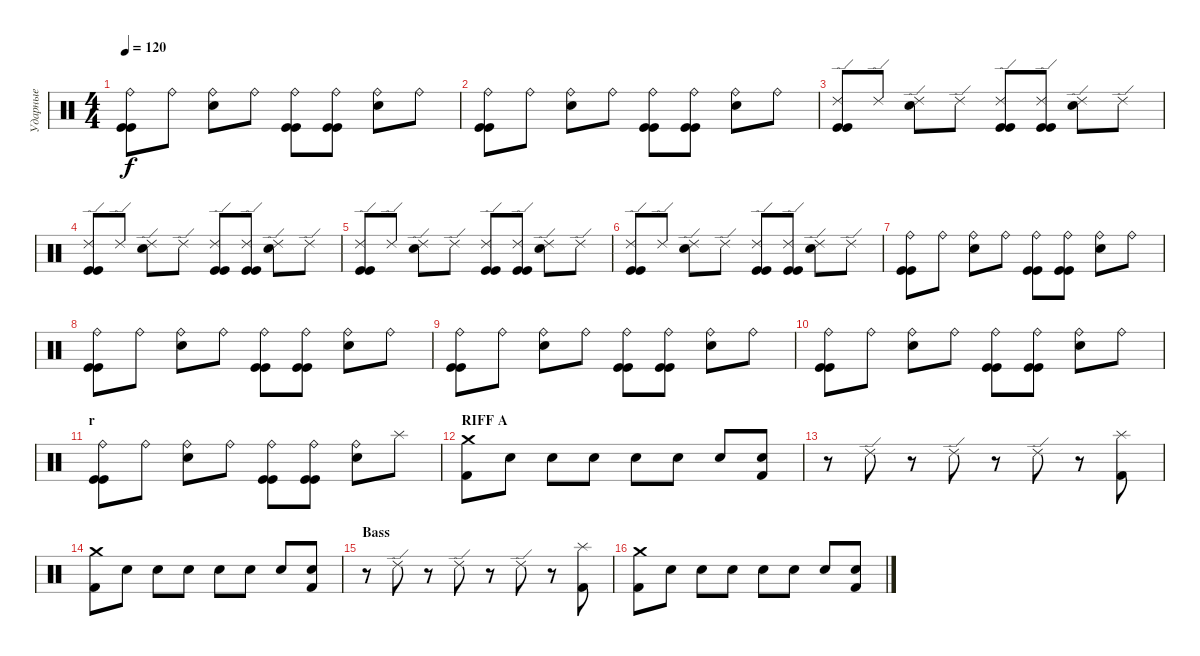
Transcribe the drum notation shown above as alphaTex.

\track ("Ударные" "Ударные") {instrument percussion}
\staff {score}
\articulation defaults
\ts (4 4)
\tempo 120
\clef neutral
\ks c
("Ride (bell)" "Kick (hit)" "Kick (hit)").8{dy f} "Ride (bell)".8 ("Ride (bell)" "Snare (hit) 2").8 "Ride (bell)".8 ("Ride (bell)" "Kick (hit)" "Kick (hit)").8 ("Ride (bell)" "Kick (hit)" "Kick (hit)").8 ("Ride (bell)" "Snare (hit) 2").8 "Ride (bell)".8 |
("Ride (bell)" "Kick (hit)" "Kick (hit)").8 "Ride (bell)".8 ("Ride (bell)" "Snare (hit) 2").8 "Ride (bell)".8 ("Ride (bell)" "Kick (hit)" "Kick (hit)").8 ("Ride (bell)" "Kick (hit)" "Kick (hit)").8 ("Ride (bell)" "Snare (hit) 2").8 "Ride (bell)".8 |
("Ride (edge) 2" "Kick (hit)" "Kick (hit)").8 "Ride (edge) 2".8 ("Ride (edge) 2" "Snare (hit) 2").8 "Ride (edge) 2".8 ("Ride (edge) 2" "Kick (hit)" "Kick (hit)").8 ("Ride (edge) 2" "Kick (hit)" "Kick (hit)").8 ("Ride (edge) 2" "Snare (hit) 2").8 "Ride (edge) 2".8 |
("Ride (edge) 2" "Kick (hit)" "Kick (hit)").8 "Ride (edge) 2".8 ("Ride (edge) 2" "Snare (hit) 2").8 "Ride (edge) 2".8 ("Ride (edge) 2" "Kick (hit)" "Kick (hit)").8 ("Ride (edge) 2" "Kick (hit)" "Kick (hit)").8 ("Ride (edge) 2" "Snare (hit) 2").8 "Ride (edge) 2".8 |
("Ride (edge) 2" "Kick (hit)" "Kick (hit)").8 "Ride (edge) 2".8 ("Ride (edge) 2" "Snare (hit) 2").8 "Ride (edge) 2".8 ("Ride (edge) 2" "Kick (hit)" "Kick (hit)").8 ("Ride (edge) 2" "Kick (hit)" "Kick (hit)").8 ("Ride (edge) 2" "Snare (hit) 2").8 "Ride (edge) 2".8 |
("Ride (edge) 2" "Kick (hit)" "Kick (hit)").8 "Ride (edge) 2".8 ("Ride (edge) 2" "Snare (hit) 2").8 "Ride (edge) 2".8 ("Ride (edge) 2" "Kick (hit)" "Kick (hit)").8 ("Ride (edge) 2" "Kick (hit)" "Kick (hit)").8 ("Ride (edge) 2" "Snare (hit) 2").8 "Ride (edge) 2".8 |
("Ride (bell)" "Kick (hit)" "Kick (hit)").8 "Ride (bell)".8 ("Ride (bell)" "Snare (hit) 2").8 "Ride (bell)".8 ("Ride (bell)" "Kick (hit)" "Kick (hit)").8 ("Ride (bell)" "Kick (hit)" "Kick (hit)").8 ("Ride (bell)" "Snare (hit) 2").8 "Ride (bell)".8 |
("Ride (bell)" "Kick (hit)" "Kick (hit)").8 "Ride (bell)".8 ("Ride (bell)" "Snare (hit) 2").8 "Ride (bell)".8 ("Ride (bell)" "Kick (hit)" "Kick (hit)").8 ("Ride (bell)" "Kick (hit)" "Kick (hit)").8 ("Ride (bell)" "Snare (hit) 2").8 "Ride (bell)".8 |
("Ride (bell)" "Kick (hit)" "Kick (hit)").8 "Ride (bell)".8 ("Ride (bell)" "Snare (hit) 2").8 "Ride (bell)".8 ("Ride (bell)" "Kick (hit)" "Kick (hit)").8 ("Ride (bell)" "Kick (hit)" "Kick (hit)").8 ("Ride (bell)" "Snare (hit) 2").8 "Ride (bell)".8 |
("Ride (bell)" "Kick (hit)" "Kick (hit)").8 "Ride (bell)".8 ("Ride (bell)" "Snare (hit) 2").8 "Ride (bell)".8 ("Ride (bell)" "Kick (hit)" "Kick (hit)").8 ("Ride (bell)" "Kick (hit)" "Kick (hit)").8 ("Ride (bell)" "Snare (hit) 2").8 "Ride (bell)".8 |
\section ("" "r")
("Ride (bell)" "Kick (hit)" "Kick (hit)").8 "Ride (bell)".8 ("Ride (bell)" "Snare (hit) 2").8 "Ride (bell)".8 ("Ride (bell)" "Kick (hit)" "Kick (hit)").8 ("Ride (bell)" "Kick (hit)" "Kick (hit)").8 ("Ride (bell)" "Snare (hit) 2").8 "Splash (hit)".8 |
\section ("" "RIFF A")
("Crash medium (hit)" "Kick (hit) 2").8 "Metronome (bell)".8 "Metronome (bell)".8 "Metronome (bell)".8 "Metronome (bell)".8 "Metronome (bell)".8 "Metronome (bell)".8 ("Metronome (bell)" "Kick (hit) 2").8 |
r.8 "Ride (edge) 2".8 r.8 "Ride (edge) 2".8 r.8 "Ride (edge) 2".8 r.8 ("Splash (hit)" "Kick (hit) 2").8 |
("Crash medium (hit)" "Kick (hit) 2").8 "Metronome (bell)".8 "Metronome (bell)".8 "Metronome (bell)".8 "Metronome (bell)".8 "Metronome (bell)".8 "Metronome (bell)".8 ("Metronome (bell)" "Kick (hit) 2").8 |
\section ("" "Bass")
r.8 "Ride (edge) 2".8 r.8 "Ride (edge) 2".8 r.8 "Ride (edge) 2".8 r.8 ("Splash (hit)" "Kick (hit) 2").8 |
("Crash medium (hit)" "Kick (hit) 2").8 "Metronome (bell)".8 "Metronome (bell)".8 "Metronome (bell)".8 "Metronome (bell)".8 "Metronome (bell)".8 "Metronome (bell)".8 ("Metronome (bell)" "Kick (hit) 2").8
